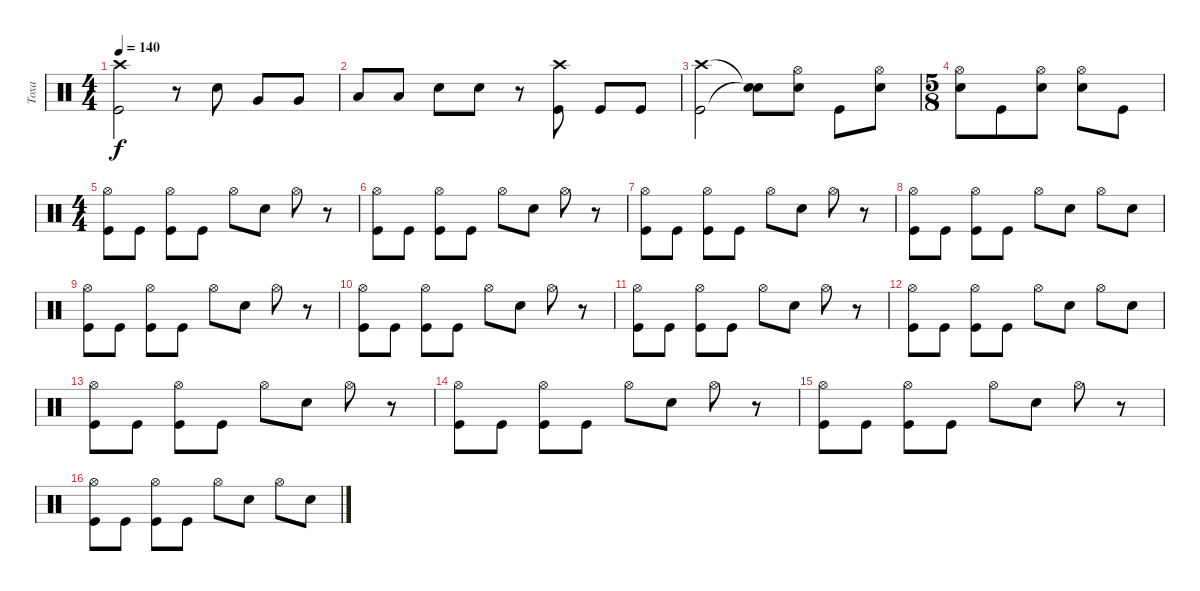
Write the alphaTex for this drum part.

\track ("Тоха" "Тоха") {instrument percussion}
\staff {score}
\articulation defaults
\ts (4 4)
\tempo 140
\clef neutral
\ks c
("Kick (hit)" "Crash high (hit)").2{dy f} r.8 "Snare (hit) 2".8 "Very Low Tom (hit)".8 "Very Low Tom (hit)".8 |
"Low Floor Tom (hit)".8 "Low Floor Tom (hit)".8 "Snare (hit) 2".8 "Snare (hit) 2".8 r.8 ("Kick (hit)" "Crash high (hit)").8 "Kick (hit)".8 "Kick (hit)".8 |
("Kick (hit)" "Crash high (hit)").2 ("Snare (hit)"{t} "Snare (hit)"{t}).8 ("Snare (hit) 2" "Hi-Hat (open)").8 "Kick (hit)".8 ("Snare (hit) 2" "Hi-Hat (open)").8 |
\ts (5 8)
("Snare (hit) 2" "Hi-Hat (open)").8 "Kick (hit)".8 ("Snare (hit) 2" "Hi-Hat (open)").8 ("Snare (hit) 2" "Hi-Hat (open)").8 "Kick (hit)".8 |
\ts (4 4)
("Kick (hit)" "Hi-Hat (open)").8 "Kick (hit)".8 ("Kick (hit)" "Hi-Hat (open)").8 "Kick (hit)".8 "Hi-Hat (open)".8 "Snare (hit) 2".8 "Hi-Hat (open)".8 r.8 |
("Kick (hit)" "Hi-Hat (open)").8 "Kick (hit)".8 ("Kick (hit)" "Hi-Hat (open)").8 "Kick (hit)".8 "Hi-Hat (open)".8 "Snare (hit) 2".8 "Hi-Hat (open)".8 r.8 |
("Kick (hit)" "Hi-Hat (open)").8 "Kick (hit)".8 ("Kick (hit)" "Hi-Hat (open)").8 "Kick (hit)".8 "Hi-Hat (open)".8 "Snare (hit) 2".8 "Hi-Hat (open)".8 r.8 |
("Kick (hit)" "Hi-Hat (open)").8 "Kick (hit)".8 ("Kick (hit)" "Hi-Hat (open)").8 "Kick (hit)".8 "Hi-Hat (open)".8 "Snare (hit) 2".8 "Hi-Hat (open)".8 "Snare (hit) 2".8 |
("Kick (hit)" "Hi-Hat (open)").8 "Kick (hit)".8 ("Kick (hit)" "Hi-Hat (open)").8 "Kick (hit)".8 "Hi-Hat (open)".8 "Snare (hit) 2".8 "Hi-Hat (open)".8 r.8 |
("Kick (hit)" "Hi-Hat (open)").8 "Kick (hit)".8 ("Kick (hit)" "Hi-Hat (open)").8 "Kick (hit)".8 "Hi-Hat (open)".8 "Snare (hit) 2".8 "Hi-Hat (open)".8 r.8 |
("Kick (hit)" "Hi-Hat (open)").8 "Kick (hit)".8 ("Kick (hit)" "Hi-Hat (open)").8 "Kick (hit)".8 "Hi-Hat (open)".8 "Snare (hit) 2".8 "Hi-Hat (open)".8 r.8 |
("Kick (hit)" "Hi-Hat (open)").8 "Kick (hit)".8 ("Kick (hit)" "Hi-Hat (open)").8 "Kick (hit)".8 "Hi-Hat (open)".8 "Snare (hit) 2".8 "Hi-Hat (open)".8 "Snare (hit) 2".8 |
("Kick (hit)" "Hi-Hat (open)").8 "Kick (hit)".8 ("Kick (hit)" "Hi-Hat (open)").8 "Kick (hit)".8 "Hi-Hat (open)".8 "Snare (hit) 2".8 "Hi-Hat (open)".8 r.8 |
("Kick (hit)" "Hi-Hat (open)").8 "Kick (hit)".8 ("Kick (hit)" "Hi-Hat (open)").8 "Kick (hit)".8 "Hi-Hat (open)".8 "Snare (hit) 2".8 "Hi-Hat (open)".8 r.8 |
("Kick (hit)" "Hi-Hat (open)").8 "Kick (hit)".8 ("Kick (hit)" "Hi-Hat (open)").8 "Kick (hit)".8 "Hi-Hat (open)".8 "Snare (hit) 2".8 "Hi-Hat (open)".8 r.8 |
("Kick (hit)" "Hi-Hat (open)").8 "Kick (hit)".8 ("Kick (hit)" "Hi-Hat (open)").8 "Kick (hit)".8 "Hi-Hat (open)".8 "Snare (hit) 2".8 "Hi-Hat (open)".8 "Snare (hit) 2".8
